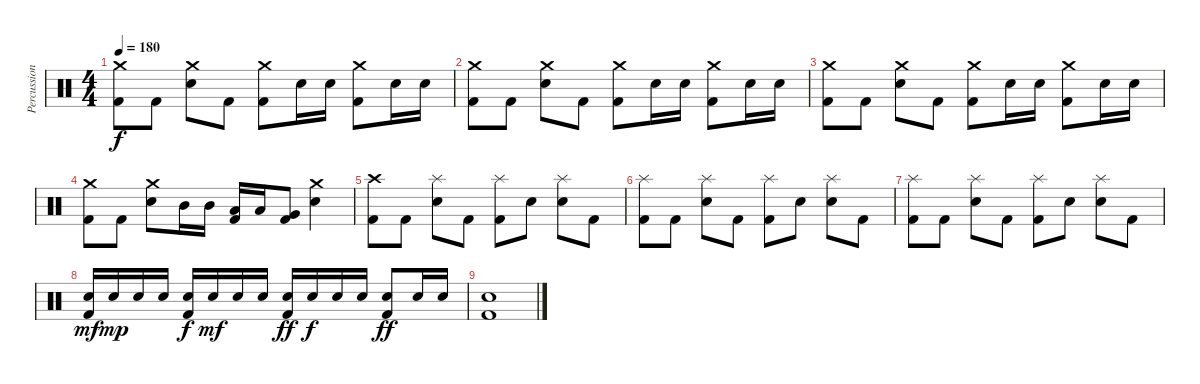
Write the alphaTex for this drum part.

\track ("Percussion" "Percussion") {instrument percussion}
\staff {score}
\articulation defaults
\ts (4 4)
\tempo 180
\clef neutral
\ks c
("Crash medium (hit)" "Kick (hit) 2").8{dy f} "Kick (hit) 2".8 ("Crash medium (hit)" "Electric Snare (hit)").8 "Kick (hit) 2".8 ("Crash medium (hit)" "Kick (hit) 2").8 "Electric Snare (hit)".16 "Electric Snare (hit)".16 ("Crash medium (hit)" "Kick (hit) 2").8 "Electric Snare (hit)".16 "Electric Snare (hit)".16 |
("Crash medium (hit)" "Kick (hit) 2").8 "Kick (hit) 2".8 ("Crash medium (hit)" "Electric Snare (hit)").8 "Kick (hit) 2".8 ("Crash medium (hit)" "Kick (hit) 2").8 "Electric Snare (hit)".16 "Electric Snare (hit)".16 ("Crash medium (hit)" "Kick (hit) 2").8 "Electric Snare (hit)".16 "Electric Snare (hit)".16 |
("Crash medium (hit)" "Kick (hit) 2").8 "Kick (hit) 2".8 ("Crash medium (hit)" "Electric Snare (hit)").8 "Kick (hit) 2".8 ("Crash medium (hit)" "Kick (hit) 2").8 "Electric Snare (hit)".16 "Electric Snare (hit)".16 ("Crash medium (hit)" "Kick (hit) 2").8 "Electric Snare (hit)".16 "Electric Snare (hit)".16 |
("Crash medium (hit)" "Kick (hit) 2").8 "Kick (hit) 2".8 ("Crash medium (hit)" "Electric Snare (hit)").8 "Mid Tom (hit)".16 "Mid Tom (hit)".16 ("Low Tom (hit)" "Kick (hit) 2").16 "Low Tom (hit)".16 ("Very Low Tom (hit)" "Kick (hit) 2").8 ("Crash medium (hit)" "Electric Snare (hit)").4 |
("Crash high (hit)" "Kick (hit) 2").8 "Kick (hit) 2".8 ("Splash (hit)" "Electric Snare (hit)").8 "Kick (hit) 2".8 ("Splash (hit)" "Kick (hit) 2").8 "Electric Snare (hit)".8 ("Splash (hit)" "Electric Snare (hit)").8 "Kick (hit) 2".8 |
("Splash (hit)" "Kick (hit) 2").8 "Kick (hit) 2".8 ("Splash (hit)" "Electric Snare (hit)").8 "Kick (hit) 2".8 ("Splash (hit)" "Kick (hit) 2").8 "Electric Snare (hit)".8 ("Splash (hit)" "Electric Snare (hit)").8 "Kick (hit) 2".8 |
("Splash (hit)" "Kick (hit) 2").8 "Kick (hit) 2".8 ("Splash (hit)" "Electric Snare (hit)").8 "Kick (hit) 2".8 ("Splash (hit)" "Kick (hit) 2").8 "Electric Snare (hit)".8 ("Splash (hit)" "Electric Snare (hit)").8 "Kick (hit) 2".8 |
("Electric Snare (hit)" "Kick (hit) 2").16{dy mf} "Electric Snare (hit)".16{dy mp} "Electric Snare (hit)".16 "Electric Snare (hit)".16 ("Electric Snare (hit)" "Kick (hit) 2").16{dy f} "Electric Snare (hit)".16{dy mf} "Electric Snare (hit)".16 "Electric Snare (hit)".16 ("Electric Snare (hit)" "Kick (hit) 2").16{dy ff} "Electric Snare (hit)".16{dy f} "Electric Snare (hit)".16 "Electric Snare (hit)".16 ("Electric Snare (hit)" "Kick (hit) 2").8{dy ff} "Electric Snare (hit)".16 "Electric Snare (hit)".16 |
("Electric Snare (hit)" "Kick (hit) 2").1
